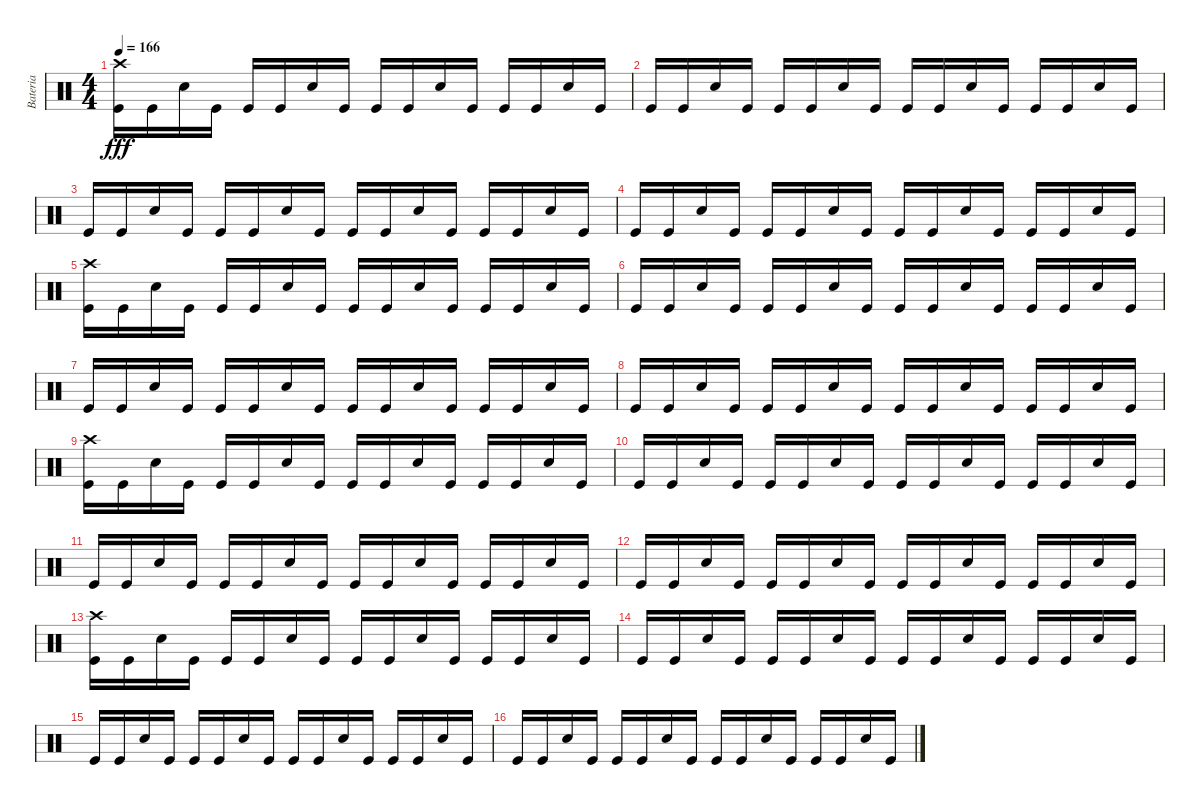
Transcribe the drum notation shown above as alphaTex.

\track ("Bateria" "Bateria") {instrument percussion}
\staff {score}
\articulation defaults
\ts (4 4)
\tempo 166
\clef neutral
\ks c
("Kick (hit)" "Crash high (hit)").16{dy fff} "Kick (hit)".16 "Snare (hit) 2".16 "Kick (hit)".16 "Kick (hit)".16 "Kick (hit)".16 "Snare (hit) 2".16 "Kick (hit)".16 "Kick (hit)".16 "Kick (hit)".16 "Snare (hit) 2".16 "Kick (hit)".16 "Kick (hit)".16 "Kick (hit)".16 "Snare (hit) 2".16 "Kick (hit)".16 |
"Kick (hit)".16 "Kick (hit)".16 "Snare (hit) 2".16 "Kick (hit)".16 "Kick (hit)".16 "Kick (hit)".16 "Snare (hit) 2".16 "Kick (hit)".16 "Kick (hit)".16 "Kick (hit)".16 "Snare (hit) 2".16 "Kick (hit)".16 "Kick (hit)".16 "Kick (hit)".16 "Snare (hit) 2".16 "Kick (hit)".16 |
"Kick (hit)".16 "Kick (hit)".16 "Snare (hit) 2".16 "Kick (hit)".16 "Kick (hit)".16 "Kick (hit)".16 "Snare (hit) 2".16 "Kick (hit)".16 "Kick (hit)".16 "Kick (hit)".16 "Snare (hit) 2".16 "Kick (hit)".16 "Kick (hit)".16 "Kick (hit)".16 "Snare (hit) 2".16 "Kick (hit)".16 |
"Kick (hit)".16 "Kick (hit)".16 "Snare (hit) 2".16 "Kick (hit)".16 "Kick (hit)".16 "Kick (hit)".16 "Snare (hit) 2".16 "Kick (hit)".16 "Kick (hit)".16 "Kick (hit)".16 "Snare (hit) 2".16 "Kick (hit)".16 "Kick (hit)".16 "Kick (hit)".16 "Snare (hit) 2".16 "Kick (hit)".16 |
("Kick (hit)" "Crash high (hit)").16 "Kick (hit)".16 "Snare (hit) 2".16 "Kick (hit)".16 "Kick (hit)".16 "Kick (hit)".16 "Snare (hit) 2".16 "Kick (hit)".16 "Kick (hit)".16 "Kick (hit)".16 "Snare (hit) 2".16 "Kick (hit)".16 "Kick (hit)".16 "Kick (hit)".16 "Snare (hit) 2".16 "Kick (hit)".16 |
"Kick (hit)".16 "Kick (hit)".16 "Snare (hit) 2".16 "Kick (hit)".16 "Kick (hit)".16 "Kick (hit)".16 "Snare (hit) 2".16 "Kick (hit)".16 "Kick (hit)".16 "Kick (hit)".16 "Snare (hit) 2".16 "Kick (hit)".16 "Kick (hit)".16 "Kick (hit)".16 "Snare (hit) 2".16 "Kick (hit)".16 |
"Kick (hit)".16 "Kick (hit)".16 "Snare (hit) 2".16 "Kick (hit)".16 "Kick (hit)".16 "Kick (hit)".16 "Snare (hit) 2".16 "Kick (hit)".16 "Kick (hit)".16 "Kick (hit)".16 "Snare (hit) 2".16 "Kick (hit)".16 "Kick (hit)".16 "Kick (hit)".16 "Snare (hit) 2".16 "Kick (hit)".16 |
"Kick (hit)".16 "Kick (hit)".16 "Snare (hit) 2".16 "Kick (hit)".16 "Kick (hit)".16 "Kick (hit)".16 "Snare (hit) 2".16 "Kick (hit)".16 "Kick (hit)".16 "Kick (hit)".16 "Snare (hit) 2".16 "Kick (hit)".16 "Kick (hit)".16 "Kick (hit)".16 "Snare (hit) 2".16 "Kick (hit)".16 |
("Kick (hit)" "Crash high (hit)").16 "Kick (hit)".16 "Snare (hit) 2".16 "Kick (hit)".16 "Kick (hit)".16 "Kick (hit)".16 "Snare (hit) 2".16 "Kick (hit)".16 "Kick (hit)".16 "Kick (hit)".16 "Snare (hit) 2".16 "Kick (hit)".16 "Kick (hit)".16 "Kick (hit)".16 "Snare (hit) 2".16 "Kick (hit)".16 |
"Kick (hit)".16 "Kick (hit)".16 "Snare (hit) 2".16 "Kick (hit)".16 "Kick (hit)".16 "Kick (hit)".16 "Snare (hit) 2".16 "Kick (hit)".16 "Kick (hit)".16 "Kick (hit)".16 "Snare (hit) 2".16 "Kick (hit)".16 "Kick (hit)".16 "Kick (hit)".16 "Snare (hit) 2".16 "Kick (hit)".16 |
"Kick (hit)".16 "Kick (hit)".16 "Snare (hit) 2".16 "Kick (hit)".16 "Kick (hit)".16 "Kick (hit)".16 "Snare (hit) 2".16 "Kick (hit)".16 "Kick (hit)".16 "Kick (hit)".16 "Snare (hit) 2".16 "Kick (hit)".16 "Kick (hit)".16 "Kick (hit)".16 "Snare (hit) 2".16 "Kick (hit)".16 |
"Kick (hit)".16 "Kick (hit)".16 "Snare (hit) 2".16 "Kick (hit)".16 "Kick (hit)".16 "Kick (hit)".16 "Snare (hit) 2".16 "Kick (hit)".16 "Kick (hit)".16 "Kick (hit)".16 "Snare (hit) 2".16 "Kick (hit)".16 "Kick (hit)".16 "Kick (hit)".16 "Snare (hit) 2".16 "Kick (hit)".16 |
("Kick (hit)" "Crash high (hit)").16 "Kick (hit)".16 "Snare (hit) 2".16 "Kick (hit)".16 "Kick (hit)".16 "Kick (hit)".16 "Snare (hit) 2".16 "Kick (hit)".16 "Kick (hit)".16 "Kick (hit)".16 "Snare (hit) 2".16 "Kick (hit)".16 "Kick (hit)".16 "Kick (hit)".16 "Snare (hit) 2".16 "Kick (hit)".16 |
"Kick (hit)".16 "Kick (hit)".16 "Snare (hit) 2".16 "Kick (hit)".16 "Kick (hit)".16 "Kick (hit)".16 "Snare (hit) 2".16 "Kick (hit)".16 "Kick (hit)".16 "Kick (hit)".16 "Snare (hit) 2".16 "Kick (hit)".16 "Kick (hit)".16 "Kick (hit)".16 "Snare (hit) 2".16 "Kick (hit)".16 |
"Kick (hit)".16 "Kick (hit)".16 "Snare (hit) 2".16 "Kick (hit)".16 "Kick (hit)".16 "Kick (hit)".16 "Snare (hit) 2".16 "Kick (hit)".16 "Kick (hit)".16 "Kick (hit)".16 "Snare (hit) 2".16 "Kick (hit)".16 "Kick (hit)".16 "Kick (hit)".16 "Snare (hit) 2".16 "Kick (hit)".16 |
"Kick (hit)".16 "Kick (hit)".16 "Snare (hit) 2".16 "Kick (hit)".16 "Kick (hit)".16 "Kick (hit)".16 "Snare (hit) 2".16 "Kick (hit)".16 "Kick (hit)".16 "Kick (hit)".16 "Snare (hit) 2".16 "Kick (hit)".16 "Kick (hit)".16 "Kick (hit)".16 "Snare (hit) 2".16 "Kick (hit)".16
